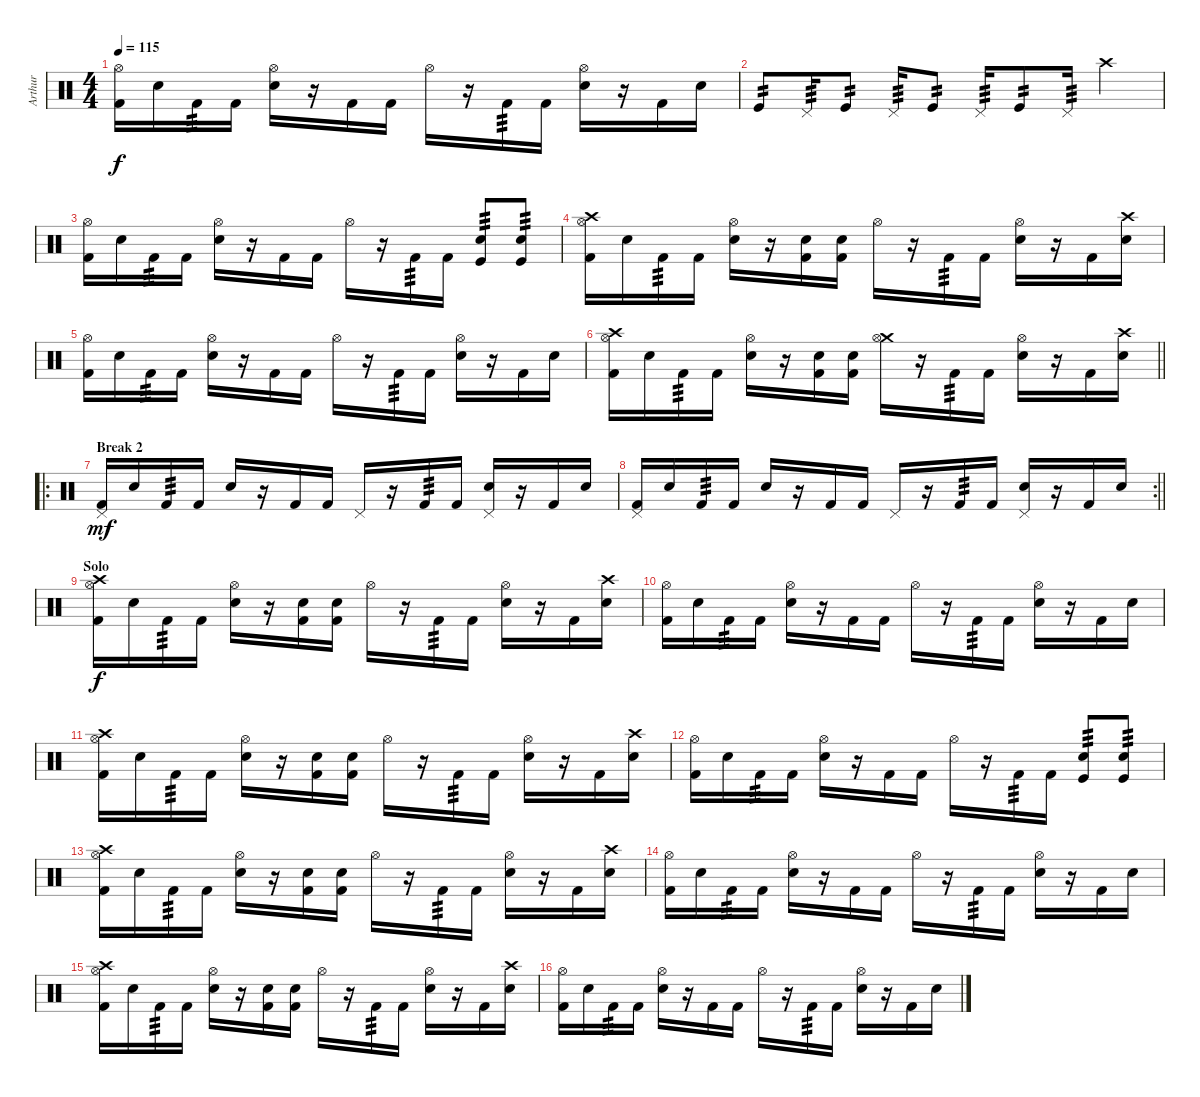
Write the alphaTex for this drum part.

\track ("Arthur" "Arthur") {instrument percussion}
\staff {score}
\articulation defaults
\ts (4 4)
\tempo 115
\clef neutral
\ks c
("Hi-Hat (open)" "Kick (hit) 2").16{dy f} "Electric Snare (hit)".16 "Kick (hit) 2".16{tp 3} "Kick (hit) 2".16 ("Hi-Hat (open)" "Electric Snare (hit)").16 r.16 "Kick (hit) 2".16 "Kick (hit) 2".16 "Hi-Hat (open)".16 r.16 "Kick (hit) 2".16{tp 3} "Kick (hit) 2".16 ("Hi-Hat (open)" "Electric Snare (hit)").16 r.16 "Kick (hit) 2".16 "Electric Snare (hit)".16 |
"Kick (hit)".8{tp 2} "Pedal Hi-Hat (hit)".16{tp 3} "Kick (hit)".8{tp 2} "Pedal Hi-Hat (hit)".16{tp 3} "Kick (hit)".8{tp 2} "Pedal Hi-Hat (hit)".16{tp 3} "Kick (hit)".8{tp 2} "Pedal Hi-Hat (hit)".16{tp 3} "Crash high (hit)".4 |
("Hi-Hat (open)" "Kick (hit) 2").16 "Electric Snare (hit)".16 "Kick (hit) 2".16{tp 3} "Kick (hit) 2".16 ("Hi-Hat (open)" "Electric Snare (hit)").16 r.16 "Kick (hit) 2".16 "Kick (hit) 2".16 "Hi-Hat (open)".16 r.16 "Kick (hit) 2".16{tp 3} "Kick (hit) 2".16 ("Electric Snare (hit)" "Kick (hit)").8{tp 3} ("Electric Snare (hit)" "Kick (hit)").8{tp 3} |
("Crash high (hit)" "Hi-Hat (open)" "Kick (hit) 2").16 "Electric Snare (hit)".16 "Kick (hit) 2".16{tp 3} "Kick (hit) 2".16 ("Hi-Hat (open)" "Electric Snare (hit)").16 r.16 ("Electric Snare (hit)" "Kick (hit) 2").16 ("Electric Snare (hit)" "Kick (hit) 2").16 "Hi-Hat (open)".16 r.16 "Kick (hit) 2".16{tp 3} "Kick (hit) 2".16 ("Hi-Hat (open)" "Electric Snare (hit)").16 r.16 "Kick (hit) 2".16 ("Crash high (hit)" "Electric Snare (hit)").16 |
("Hi-Hat (open)" "Kick (hit) 2").16 "Electric Snare (hit)".16 "Kick (hit) 2".16{tp 3} "Kick (hit) 2".16 ("Hi-Hat (open)" "Electric Snare (hit)").16 r.16 "Kick (hit) 2".16 "Kick (hit) 2".16 "Hi-Hat (open)".16 r.16 "Kick (hit) 2".16{tp 3} "Kick (hit) 2".16 ("Hi-Hat (open)" "Electric Snare (hit)").16 r.16 "Kick (hit) 2".16 "Electric Snare (hit)".16 |
\barLineRight lightlight
("Crash high (hit)" "Hi-Hat (open)" "Kick (hit) 2").16 "Electric Snare (hit)".16 "Kick (hit) 2".16{tp 3} "Kick (hit) 2".16 ("Hi-Hat (open)" "Electric Snare (hit)").16 r.16 ("Electric Snare (hit)" "Kick (hit) 2").16 ("Electric Snare (hit)" "Kick (hit) 2").16 ("Crash medium (hit)" "Hi-Hat (open)").16 r.16 "Kick (hit) 2".16{tp 3} "Kick (hit) 2".16 ("Hi-Hat (open)" "Electric Snare (hit)").16 r.16 "Kick (hit) 2".16 ("Crash high (hit)" "Electric Snare (hit)").16 |
\ro
\section ("" "Break 2")
("Pedal Hi-Hat (hit)" "Kick (hit) 2").16{dy mf} "Electric Snare (hit)".16 "Kick (hit) 2".16{tp 3} "Kick (hit) 2".16 "Electric Snare (hit)".16 r.16 "Kick (hit) 2".16 "Kick (hit) 2".16 "Pedal Hi-Hat (hit)".16 r.16 "Kick (hit) 2".16{tp 3} "Kick (hit) 2".16 ("Pedal Hi-Hat (hit)" "Electric Snare (hit)").16 r.16 "Kick (hit) 2".16 "Electric Snare (hit)".16 |
\rc 2
\barLineRight lightlight
("Pedal Hi-Hat (hit)" "Kick (hit) 2").16 "Electric Snare (hit)".16 "Kick (hit) 2".16{tp 3} "Kick (hit) 2".16 "Electric Snare (hit)".16 r.16 "Kick (hit) 2".16 "Kick (hit) 2".16 "Pedal Hi-Hat (hit)".16 r.16 "Kick (hit) 2".16{tp 3} "Kick (hit) 2".16 ("Pedal Hi-Hat (hit)" "Electric Snare (hit)").16 r.16 "Kick (hit) 2".16 "Electric Snare (hit)".16 |
\section ("" "Solo")
("Crash high (hit)" "Hi-Hat (open)" "Kick (hit) 2").16{dy f} "Electric Snare (hit)".16 "Kick (hit) 2".16{tp 3} "Kick (hit) 2".16 ("Hi-Hat (open)" "Electric Snare (hit)").16 r.16 ("Electric Snare (hit)" "Kick (hit) 2").16 ("Electric Snare (hit)" "Kick (hit) 2").16 "Hi-Hat (open)".16 r.16 "Kick (hit) 2".16{tp 3} "Kick (hit) 2".16 ("Hi-Hat (open)" "Electric Snare (hit)").16 r.16 "Kick (hit) 2".16 ("Crash high (hit)" "Electric Snare (hit)").16 |
("Hi-Hat (open)" "Kick (hit) 2").16 "Electric Snare (hit)".16 "Kick (hit) 2".16{tp 3} "Kick (hit) 2".16 ("Hi-Hat (open)" "Electric Snare (hit)").16 r.16 "Kick (hit) 2".16 "Kick (hit) 2".16 "Hi-Hat (open)".16 r.16 "Kick (hit) 2".16{tp 3} "Kick (hit) 2".16 ("Hi-Hat (open)" "Electric Snare (hit)").16 r.16 "Kick (hit) 2".16 "Electric Snare (hit)".16 |
("Crash high (hit)" "Hi-Hat (open)" "Kick (hit) 2").16 "Electric Snare (hit)".16 "Kick (hit) 2".16{tp 3} "Kick (hit) 2".16 ("Hi-Hat (open)" "Electric Snare (hit)").16 r.16 ("Electric Snare (hit)" "Kick (hit) 2").16 ("Electric Snare (hit)" "Kick (hit) 2").16 "Hi-Hat (open)".16 r.16 "Kick (hit) 2".16{tp 3} "Kick (hit) 2".16 ("Hi-Hat (open)" "Electric Snare (hit)").16 r.16 "Kick (hit) 2".16 ("Crash high (hit)" "Electric Snare (hit)").16 |
("Hi-Hat (open)" "Kick (hit) 2").16 "Electric Snare (hit)".16 "Kick (hit) 2".16{tp 3} "Kick (hit) 2".16 ("Hi-Hat (open)" "Electric Snare (hit)").16 r.16 "Kick (hit) 2".16 "Kick (hit) 2".16 "Hi-Hat (open)".16 r.16 "Kick (hit) 2".16{tp 3} "Kick (hit) 2".16 ("Electric Snare (hit)" "Kick (hit)").8{tp 3} ("Electric Snare (hit)" "Kick (hit)").8{tp 3} |
("Crash high (hit)" "Hi-Hat (open)" "Kick (hit) 2").16 "Electric Snare (hit)".16 "Kick (hit) 2".16{tp 3} "Kick (hit) 2".16 ("Hi-Hat (open)" "Electric Snare (hit)").16 r.16 ("Electric Snare (hit)" "Kick (hit) 2").16 ("Electric Snare (hit)" "Kick (hit) 2").16 "Hi-Hat (open)".16 r.16 "Kick (hit) 2".16{tp 3} "Kick (hit) 2".16 ("Hi-Hat (open)" "Electric Snare (hit)").16 r.16 "Kick (hit) 2".16 ("Crash high (hit)" "Electric Snare (hit)").16 |
("Hi-Hat (open)" "Kick (hit) 2").16 "Electric Snare (hit)".16 "Kick (hit) 2".16{tp 3} "Kick (hit) 2".16 ("Hi-Hat (open)" "Electric Snare (hit)").16 r.16 "Kick (hit) 2".16 "Kick (hit) 2".16 "Hi-Hat (open)".16 r.16 "Kick (hit) 2".16{tp 3} "Kick (hit) 2".16 ("Hi-Hat (open)" "Electric Snare (hit)").16 r.16 "Kick (hit) 2".16 "Electric Snare (hit)".16 |
("Crash high (hit)" "Hi-Hat (open)" "Kick (hit) 2").16 "Electric Snare (hit)".16 "Kick (hit) 2".16{tp 3} "Kick (hit) 2".16 ("Hi-Hat (open)" "Electric Snare (hit)").16 r.16 ("Electric Snare (hit)" "Kick (hit) 2").16 ("Electric Snare (hit)" "Kick (hit) 2").16 "Hi-Hat (open)".16 r.16 "Kick (hit) 2".16{tp 3} "Kick (hit) 2".16 ("Hi-Hat (open)" "Electric Snare (hit)").16 r.16 "Kick (hit) 2".16 ("Crash high (hit)" "Electric Snare (hit)").16 |
("Hi-Hat (open)" "Kick (hit) 2").16 "Electric Snare (hit)".16 "Kick (hit) 2".16{tp 3} "Kick (hit) 2".16 ("Hi-Hat (open)" "Electric Snare (hit)").16 r.16 "Kick (hit) 2".16 "Kick (hit) 2".16 "Hi-Hat (open)".16 r.16 "Kick (hit) 2".16{tp 3} "Kick (hit) 2".16 ("Hi-Hat (open)" "Electric Snare (hit)").16 r.16 "Kick (hit) 2".16 "Electric Snare (hit)".16
